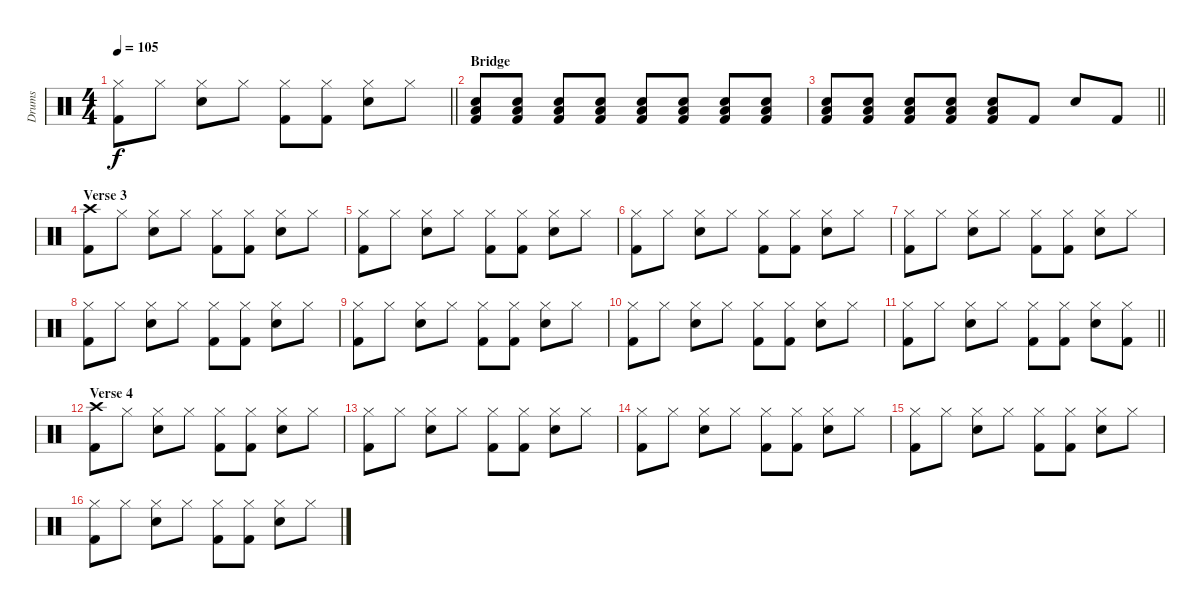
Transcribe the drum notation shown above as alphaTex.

\track ("Drums" "Drums") {instrument percussion}
\staff {score}
\articulation defaults
\ts (4 4)
\tempo 105
\clef neutral
\barLineRight lightlight
\ks c
("Hi-Hat (closed)" "Kick (hit) 2").8{dy f} "Hi-Hat (closed)".8 ("Hi-Hat (closed)" "Electric Snare (hit)").8 "Hi-Hat (closed)".8 ("Hi-Hat (closed)" "Kick (hit) 2").8 ("Hi-Hat (closed)" "Kick (hit) 2").8 ("Hi-Hat (closed)" "Electric Snare (hit)").8 "Hi-Hat (closed)".8{volume 5} |
\section ("" "Bridge")
("Electric Snare (hit)" "Low Floor Tom (hit)" "Kick (hit) 2").8{volume 16} ("Electric Snare (hit)" "Low Floor Tom (hit)" "Kick (hit) 2").8 ("Electric Snare (hit)" "Low Floor Tom (hit)" "Kick (hit) 2").8 ("Electric Snare (hit)" "Low Floor Tom (hit)" "Kick (hit) 2").8 ("Electric Snare (hit)" "Low Floor Tom (hit)" "Kick (hit) 2").8 ("Electric Snare (hit)" "Low Floor Tom (hit)" "Kick (hit) 2").8 ("Electric Snare (hit)" "Low Floor Tom (hit)" "Kick (hit) 2").8 ("Electric Snare (hit)" "Low Floor Tom (hit)" "Kick (hit) 2").8 |
\barLineRight lightlight
("Electric Snare (hit)" "Low Floor Tom (hit)" "Kick (hit) 2").8 ("Electric Snare (hit)" "Low Floor Tom (hit)" "Kick (hit) 2").8 ("Electric Snare (hit)" "Low Floor Tom (hit)" "Kick (hit) 2").8 ("Electric Snare (hit)" "Low Floor Tom (hit)" "Kick (hit) 2").8 ("Electric Snare (hit)" "Low Floor Tom (hit)" "Kick (hit) 2").8 "Kick (hit) 2".8 "Snare (hit) 2".8 "Kick (hit) 2".8 |
\section ("" "Verse 3")
("Crash high (hit)" "Kick (hit) 2").8 "Hi-Hat (closed)".8 ("Hi-Hat (closed)" "Electric Snare (hit)").8 "Hi-Hat (closed)".8 ("Hi-Hat (closed)" "Kick (hit) 2").8 ("Hi-Hat (closed)" "Kick (hit) 2").8 ("Hi-Hat (closed)" "Electric Snare (hit)").8 "Hi-Hat (closed)".8 |
("Hi-Hat (closed)" "Kick (hit) 2").8 "Hi-Hat (closed)".8 ("Hi-Hat (closed)" "Electric Snare (hit)").8 "Hi-Hat (closed)".8 ("Hi-Hat (closed)" "Kick (hit) 2").8 ("Hi-Hat (closed)" "Kick (hit) 2").8 ("Hi-Hat (closed)" "Electric Snare (hit)").8 "Hi-Hat (closed)".8 |
("Hi-Hat (closed)" "Kick (hit) 2").8 "Hi-Hat (closed)".8 ("Hi-Hat (closed)" "Electric Snare (hit)").8 "Hi-Hat (closed)".8 ("Hi-Hat (closed)" "Kick (hit) 2").8 ("Hi-Hat (closed)" "Kick (hit) 2").8 ("Hi-Hat (closed)" "Electric Snare (hit)").8 "Hi-Hat (closed)".8 |
("Hi-Hat (closed)" "Kick (hit) 2").8 "Hi-Hat (closed)".8 ("Hi-Hat (closed)" "Electric Snare (hit)").8 "Hi-Hat (closed)".8 ("Hi-Hat (closed)" "Kick (hit) 2").8 ("Hi-Hat (closed)" "Kick (hit) 2").8 ("Hi-Hat (closed)" "Electric Snare (hit)").8 "Hi-Hat (closed)".8 |
("Hi-Hat (closed)" "Kick (hit) 2").8 "Hi-Hat (closed)".8 ("Hi-Hat (closed)" "Electric Snare (hit)").8 "Hi-Hat (closed)".8 ("Hi-Hat (closed)" "Kick (hit) 2").8 ("Hi-Hat (closed)" "Kick (hit) 2").8 ("Hi-Hat (closed)" "Electric Snare (hit)").8 "Hi-Hat (closed)".8 |
("Hi-Hat (closed)" "Kick (hit) 2").8 "Hi-Hat (closed)".8 ("Hi-Hat (closed)" "Electric Snare (hit)").8 "Hi-Hat (closed)".8 ("Hi-Hat (closed)" "Kick (hit) 2").8 ("Hi-Hat (closed)" "Kick (hit) 2").8 ("Hi-Hat (closed)" "Electric Snare (hit)").8 "Hi-Hat (closed)".8 |
("Hi-Hat (closed)" "Kick (hit) 2").8 "Hi-Hat (closed)".8 ("Hi-Hat (closed)" "Electric Snare (hit)").8 "Hi-Hat (closed)".8 ("Hi-Hat (closed)" "Kick (hit) 2").8 ("Hi-Hat (closed)" "Kick (hit) 2").8 ("Hi-Hat (closed)" "Electric Snare (hit)").8 "Hi-Hat (closed)".8 |
\barLineRight lightlight
("Hi-Hat (closed)" "Kick (hit) 2").8 "Hi-Hat (closed)".8 ("Hi-Hat (closed)" "Electric Snare (hit)").8 "Hi-Hat (closed)".8 ("Hi-Hat (closed)" "Kick (hit) 2").8 ("Hi-Hat (closed)" "Kick (hit) 2").8 ("Hi-Hat (closed)" "Electric Snare (hit)").8 ("Hi-Hat (closed)" "Kick (hit) 2").8 |
\section ("" "Verse 4")
("Crash high (hit)" "Kick (hit) 2").8 "Hi-Hat (closed)".8 ("Hi-Hat (closed)" "Electric Snare (hit)").8 "Hi-Hat (closed)".8 ("Hi-Hat (closed)" "Kick (hit) 2").8 ("Hi-Hat (closed)" "Kick (hit) 2").8 ("Hi-Hat (closed)" "Electric Snare (hit)").8 "Hi-Hat (closed)".8 |
("Hi-Hat (closed)" "Kick (hit) 2").8 "Hi-Hat (closed)".8 ("Hi-Hat (closed)" "Electric Snare (hit)").8 "Hi-Hat (closed)".8 ("Hi-Hat (closed)" "Kick (hit) 2").8 ("Hi-Hat (closed)" "Kick (hit) 2").8 ("Hi-Hat (closed)" "Electric Snare (hit)").8 "Hi-Hat (closed)".8 |
("Hi-Hat (closed)" "Kick (hit) 2").8 "Hi-Hat (closed)".8 ("Hi-Hat (closed)" "Electric Snare (hit)").8 "Hi-Hat (closed)".8 ("Hi-Hat (closed)" "Kick (hit) 2").8 ("Hi-Hat (closed)" "Kick (hit) 2").8 ("Hi-Hat (closed)" "Electric Snare (hit)").8 "Hi-Hat (closed)".8 |
("Hi-Hat (closed)" "Kick (hit) 2").8 "Hi-Hat (closed)".8 ("Hi-Hat (closed)" "Electric Snare (hit)").8 "Hi-Hat (closed)".8 ("Hi-Hat (closed)" "Kick (hit) 2").8 ("Hi-Hat (closed)" "Kick (hit) 2").8 ("Hi-Hat (closed)" "Electric Snare (hit)").8 "Hi-Hat (closed)".8 |
("Hi-Hat (closed)" "Kick (hit) 2").8 "Hi-Hat (closed)".8 ("Hi-Hat (closed)" "Electric Snare (hit)").8 "Hi-Hat (closed)".8 ("Hi-Hat (closed)" "Kick (hit) 2").8 ("Hi-Hat (closed)" "Kick (hit) 2").8 ("Hi-Hat (closed)" "Electric Snare (hit)").8 "Hi-Hat (closed)".8
